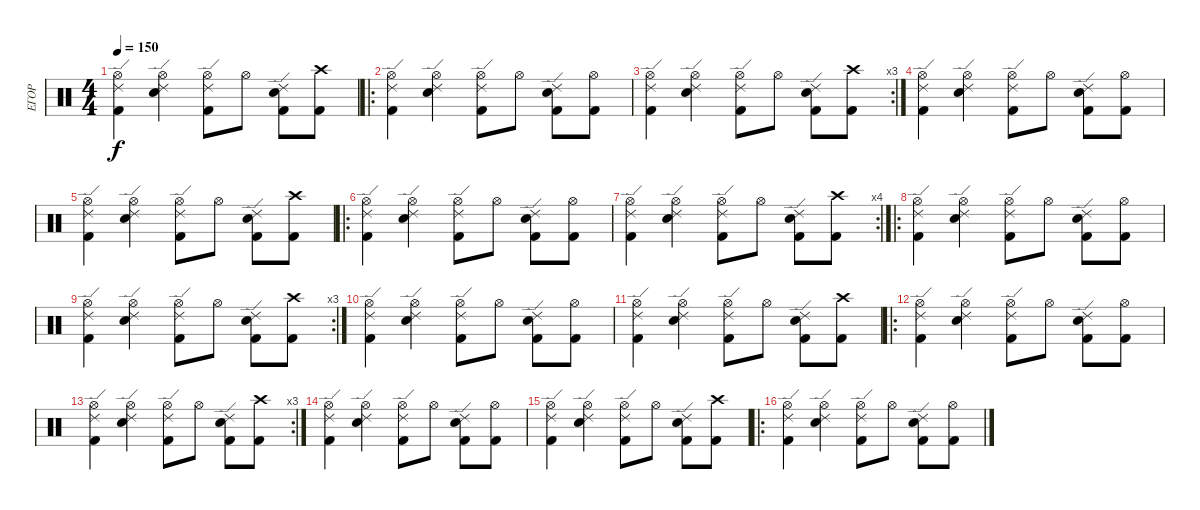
\track ("ЕГОР" "ЕГОР") {instrument percussion}
\staff {score}
\articulation defaults
\ts (4 4)
\tempo 150
\clef neutral
\ks c
("Hi-Hat (open)" "Ride (edge) 2" "Kick (hit) 2").4{dy f} ("Hi-Hat (open)" "Snare (hit) 2" "Ride (edge) 2").4 ("Hi-Hat (open)" "Ride (edge) 2" "Kick (hit) 2").8 "Hi-Hat (open)".8 ("Snare (hit) 2" "Ride (edge) 2" "Kick (hit) 2").8 ("Crash high (hit)" "Kick (hit) 2").8 |
\ro
("Hi-Hat (open)" "Ride (edge) 2" "Kick (hit) 2").4 ("Hi-Hat (open)" "Snare (hit) 2" "Ride (edge) 2").4 ("Hi-Hat (open)" "Ride (edge) 2" "Kick (hit) 2").8 "Hi-Hat (open)".8 ("Snare (hit) 2" "Ride (edge) 2" "Kick (hit) 2").8 ("Hi-Hat (open)" "Kick (hit) 2").8 |
\rc 3
("Hi-Hat (open)" "Ride (edge) 2" "Kick (hit) 2").4 ("Hi-Hat (open)" "Snare (hit) 2" "Ride (edge) 2").4 ("Hi-Hat (open)" "Ride (edge) 2" "Kick (hit) 2").8 "Hi-Hat (open)".8 ("Snare (hit) 2" "Ride (edge) 2" "Kick (hit) 2").8 ("Crash high (hit)" "Kick (hit) 2").8 |
("Hi-Hat (open)" "Ride (edge) 2" "Kick (hit) 2").4 ("Hi-Hat (open)" "Snare (hit) 2" "Ride (edge) 2").4 ("Hi-Hat (open)" "Ride (edge) 2" "Kick (hit) 2").8 "Hi-Hat (open)".8 ("Snare (hit) 2" "Ride (edge) 2" "Kick (hit) 2").8 ("Hi-Hat (open)" "Kick (hit) 2").8 |
("Hi-Hat (open)" "Ride (edge) 2" "Kick (hit) 2").4 ("Hi-Hat (open)" "Snare (hit) 2" "Ride (edge) 2").4 ("Hi-Hat (open)" "Ride (edge) 2" "Kick (hit) 2").8 "Hi-Hat (open)".8 ("Snare (hit) 2" "Ride (edge) 2" "Kick (hit) 2").8 ("Crash high (hit)" "Kick (hit) 2").8 |
\ro
("Hi-Hat (open)" "Ride (edge) 2" "Kick (hit) 2").4 ("Hi-Hat (open)" "Snare (hit) 2" "Ride (edge) 2").4 ("Hi-Hat (open)" "Ride (edge) 2" "Kick (hit) 2").8 "Hi-Hat (open)".8 ("Snare (hit) 2" "Ride (edge) 2" "Kick (hit) 2").8 ("Hi-Hat (open)" "Kick (hit) 2").8 |
\rc 4
("Hi-Hat (open)" "Ride (edge) 2" "Kick (hit) 2").4 ("Hi-Hat (open)" "Snare (hit) 2" "Ride (edge) 2").4 ("Hi-Hat (open)" "Ride (edge) 2" "Kick (hit) 2").8 "Hi-Hat (open)".8 ("Snare (hit) 2" "Ride (edge) 2" "Kick (hit) 2").8 ("Crash high (hit)" "Kick (hit) 2").8 |
\ro
("Hi-Hat (open)" "Ride (edge) 2" "Kick (hit) 2").4 ("Hi-Hat (open)" "Snare (hit) 2" "Ride (edge) 2").4 ("Hi-Hat (open)" "Ride (edge) 2" "Kick (hit) 2").8 "Hi-Hat (open)".8 ("Snare (hit) 2" "Ride (edge) 2" "Kick (hit) 2").8 ("Hi-Hat (open)" "Kick (hit) 2").8 |
\rc 3
("Hi-Hat (open)" "Ride (edge) 2" "Kick (hit) 2").4 ("Hi-Hat (open)" "Snare (hit) 2" "Ride (edge) 2").4 ("Hi-Hat (open)" "Ride (edge) 2" "Kick (hit) 2").8 "Hi-Hat (open)".8 ("Snare (hit) 2" "Ride (edge) 2" "Kick (hit) 2").8 ("Crash high (hit)" "Kick (hit) 2").8 |
("Hi-Hat (open)" "Ride (edge) 2" "Kick (hit) 2").4 ("Hi-Hat (open)" "Snare (hit) 2" "Ride (edge) 2").4 ("Hi-Hat (open)" "Ride (edge) 2" "Kick (hit) 2").8 "Hi-Hat (open)".8 ("Snare (hit) 2" "Ride (edge) 2" "Kick (hit) 2").8 ("Hi-Hat (open)" "Kick (hit) 2").8 |
("Hi-Hat (open)" "Ride (edge) 2" "Kick (hit) 2").4 ("Hi-Hat (open)" "Snare (hit) 2" "Ride (edge) 2").4 ("Hi-Hat (open)" "Ride (edge) 2" "Kick (hit) 2").8 "Hi-Hat (open)".8 ("Snare (hit) 2" "Ride (edge) 2" "Kick (hit) 2").8 ("Crash high (hit)" "Kick (hit) 2").8 |
\ro
("Hi-Hat (open)" "Ride (edge) 2" "Kick (hit) 2").4 ("Hi-Hat (open)" "Snare (hit) 2" "Ride (edge) 2").4 ("Hi-Hat (open)" "Ride (edge) 2" "Kick (hit) 2").8 "Hi-Hat (open)".8 ("Snare (hit) 2" "Ride (edge) 2" "Kick (hit) 2").8 ("Hi-Hat (open)" "Kick (hit) 2").8 |
\rc 3
("Hi-Hat (open)" "Ride (edge) 2" "Kick (hit) 2").4 ("Hi-Hat (open)" "Snare (hit) 2" "Ride (edge) 2").4 ("Hi-Hat (open)" "Ride (edge) 2" "Kick (hit) 2").8 "Hi-Hat (open)".8 ("Snare (hit) 2" "Ride (edge) 2" "Kick (hit) 2").8 ("Crash high (hit)" "Kick (hit) 2").8 |
("Hi-Hat (open)" "Ride (edge) 2" "Kick (hit) 2").4 ("Hi-Hat (open)" "Snare (hit) 2" "Ride (edge) 2").4 ("Hi-Hat (open)" "Ride (edge) 2" "Kick (hit) 2").8 "Hi-Hat (open)".8 ("Snare (hit) 2" "Ride (edge) 2" "Kick (hit) 2").8 ("Hi-Hat (open)" "Kick (hit) 2").8 |
("Hi-Hat (open)" "Ride (edge) 2" "Kick (hit) 2").4 ("Hi-Hat (open)" "Snare (hit) 2" "Ride (edge) 2").4 ("Hi-Hat (open)" "Ride (edge) 2" "Kick (hit) 2").8 "Hi-Hat (open)".8 ("Snare (hit) 2" "Ride (edge) 2" "Kick (hit) 2").8 ("Crash high (hit)" "Kick (hit) 2").8 |
\ro
("Hi-Hat (open)" "Ride (edge) 2" "Kick (hit) 2").4 ("Hi-Hat (open)" "Snare (hit) 2" "Ride (edge) 2").4 ("Hi-Hat (open)" "Ride (edge) 2" "Kick (hit) 2").8 "Hi-Hat (open)".8 ("Snare (hit) 2" "Ride (edge) 2" "Kick (hit) 2").8 ("Hi-Hat (open)" "Kick (hit) 2").8
